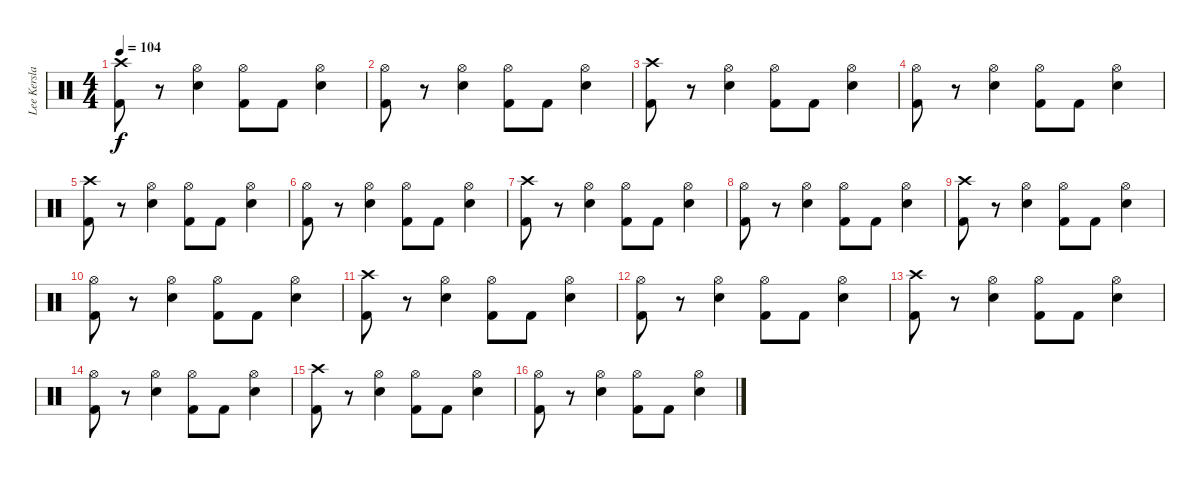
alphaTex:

\track ("Lee Kerslake" "Lee Kersla") {instrument percussion}
\staff {score}
\articulation defaults
\ts (4 4)
\tempo 104
\clef neutral
\ks c
("Crash high (hit)" "Kick (hit) 2").8{dy f} r.8 ("Hi-Hat (open)" "Electric Snare (hit)").4 ("Hi-Hat (open)" "Kick (hit) 2").8 "Kick (hit) 2".8 ("Hi-Hat (open)" "Electric Snare (hit)").4 |
("Hi-Hat (open)" "Kick (hit) 2").8 r.8 ("Hi-Hat (open)" "Electric Snare (hit)").4 ("Hi-Hat (open)" "Kick (hit) 2").8 "Kick (hit) 2".8 ("Hi-Hat (open)" "Electric Snare (hit)").4 |
("Crash high (hit)" "Kick (hit) 2").8 r.8 ("Hi-Hat (open)" "Electric Snare (hit)").4 ("Hi-Hat (open)" "Kick (hit) 2").8 "Kick (hit) 2".8 ("Hi-Hat (open)" "Electric Snare (hit)").4 |
("Hi-Hat (open)" "Kick (hit) 2").8 r.8 ("Hi-Hat (open)" "Electric Snare (hit)").4 ("Hi-Hat (open)" "Kick (hit) 2").8 "Kick (hit) 2".8 ("Hi-Hat (open)" "Electric Snare (hit)").4 |
("Crash high (hit)" "Kick (hit) 2").8 r.8 ("Hi-Hat (open)" "Electric Snare (hit)").4 ("Hi-Hat (open)" "Kick (hit) 2").8 "Kick (hit) 2".8 ("Hi-Hat (open)" "Electric Snare (hit)").4 |
("Hi-Hat (open)" "Kick (hit) 2").8 r.8 ("Hi-Hat (open)" "Electric Snare (hit)").4 ("Hi-Hat (open)" "Kick (hit) 2").8 "Kick (hit) 2".8 ("Hi-Hat (open)" "Electric Snare (hit)").4 |
("Crash high (hit)" "Kick (hit) 2").8 r.8 ("Hi-Hat (open)" "Electric Snare (hit)").4 ("Hi-Hat (open)" "Kick (hit) 2").8 "Kick (hit) 2".8 ("Hi-Hat (open)" "Electric Snare (hit)").4 |
("Hi-Hat (open)" "Kick (hit) 2").8 r.8 ("Hi-Hat (open)" "Electric Snare (hit)").4 ("Hi-Hat (open)" "Kick (hit) 2").8 "Kick (hit) 2".8 ("Hi-Hat (open)" "Electric Snare (hit)").4 |
("Crash high (hit)" "Kick (hit) 2").8 r.8 ("Hi-Hat (open)" "Electric Snare (hit)").4 ("Hi-Hat (open)" "Kick (hit) 2").8 "Kick (hit) 2".8 ("Hi-Hat (open)" "Electric Snare (hit)").4 |
("Hi-Hat (open)" "Kick (hit) 2").8 r.8 ("Hi-Hat (open)" "Electric Snare (hit)").4 ("Hi-Hat (open)" "Kick (hit) 2").8 "Kick (hit) 2".8 ("Hi-Hat (open)" "Electric Snare (hit)").4 |
("Crash high (hit)" "Kick (hit) 2").8 r.8 ("Hi-Hat (open)" "Electric Snare (hit)").4 ("Hi-Hat (open)" "Kick (hit) 2").8 "Kick (hit) 2".8 ("Hi-Hat (open)" "Electric Snare (hit)").4 |
("Hi-Hat (open)" "Kick (hit) 2").8 r.8 ("Hi-Hat (open)" "Electric Snare (hit)").4 ("Hi-Hat (open)" "Kick (hit) 2").8 "Kick (hit) 2".8 ("Hi-Hat (open)" "Electric Snare (hit)").4 |
("Crash high (hit)" "Kick (hit) 2").8 r.8 ("Hi-Hat (open)" "Electric Snare (hit)").4 ("Hi-Hat (open)" "Kick (hit) 2").8 "Kick (hit) 2".8 ("Hi-Hat (open)" "Electric Snare (hit)").4 |
("Hi-Hat (open)" "Kick (hit) 2").8 r.8 ("Hi-Hat (open)" "Electric Snare (hit)").4 ("Hi-Hat (open)" "Kick (hit) 2").8 "Kick (hit) 2".8 ("Hi-Hat (open)" "Electric Snare (hit)").4 |
("Crash high (hit)" "Kick (hit) 2").8 r.8 ("Hi-Hat (open)" "Electric Snare (hit)").4 ("Hi-Hat (open)" "Kick (hit) 2").8 "Kick (hit) 2".8 ("Hi-Hat (open)" "Electric Snare (hit)").4 |
("Hi-Hat (open)" "Kick (hit) 2").8 r.8 ("Hi-Hat (open)" "Electric Snare (hit)").4 ("Hi-Hat (open)" "Kick (hit) 2").8 "Kick (hit) 2".8 ("Hi-Hat (open)" "Electric Snare (hit)").4
